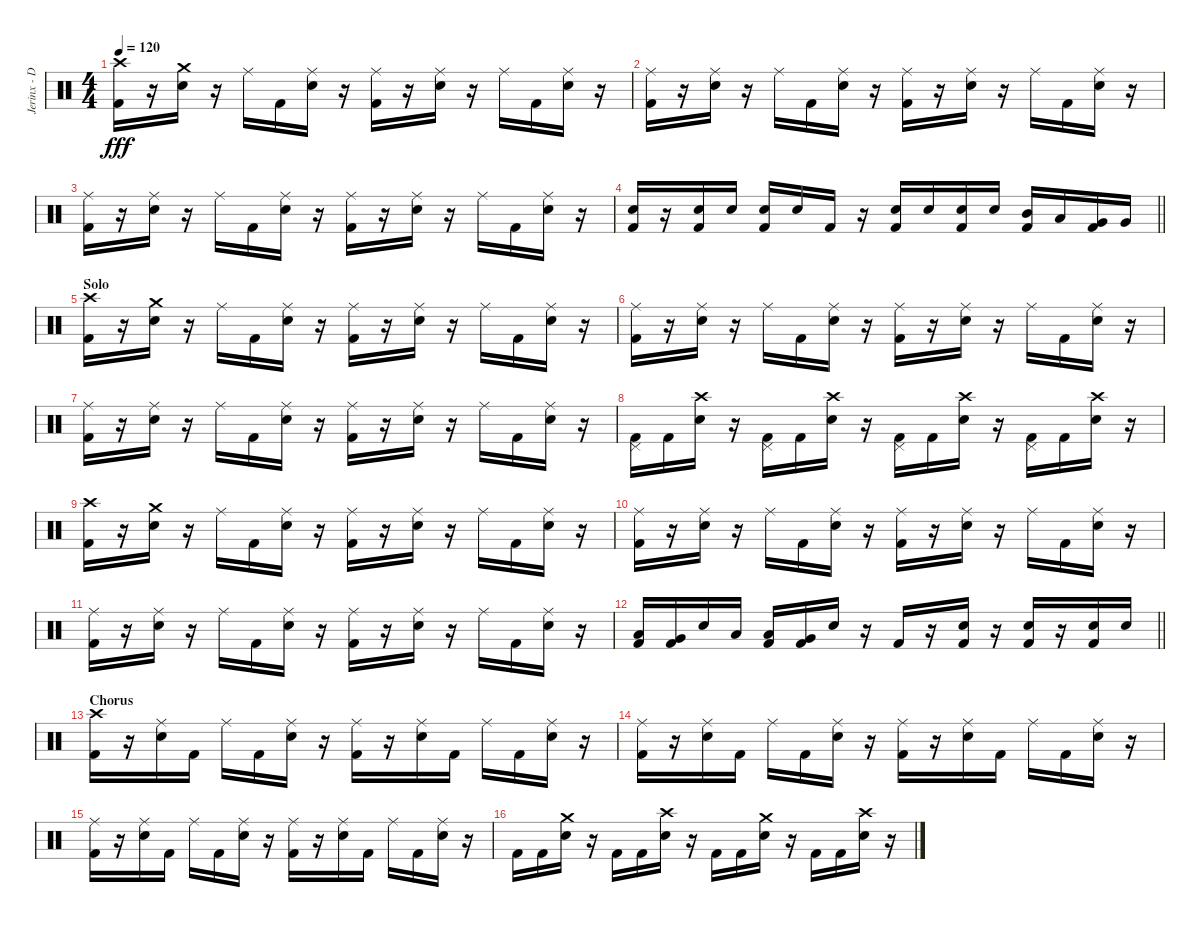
\track ("Jerinx - Drum" "Jerinx - D") {instrument percussion}
\staff {score}
\articulation defaults
\ts (4 4)
\tempo 120
\clef neutral
\ks c
("Kick (hit) 2" "Crash high (hit)").16{dy fff} r.16 ("Snare (hit) 2" "Crash medium (hit)").16 r.16 "Ride (middle)".16 "Kick (hit) 2".16 ("Snare (hit) 2" "Ride (middle)").16 r.16 ("Kick (hit) 2" "Ride (middle)").16 r.16 ("Snare (hit) 2" "Ride (middle)").16 r.16 "Ride (middle)".16 "Kick (hit) 2".16 ("Snare (hit) 2" "Ride (middle)").16 r.16 |
("Kick (hit) 2" "Ride (middle)").16 r.16 ("Snare (hit) 2" "Ride (middle)").16 r.16 "Ride (middle)".16 "Kick (hit) 2".16 ("Snare (hit) 2" "Ride (middle)").16 r.16 ("Kick (hit) 2" "Ride (middle)").16 r.16 ("Snare (hit) 2" "Ride (middle)").16 r.16 "Ride (middle)".16 "Kick (hit) 2".16 ("Snare (hit) 2" "Ride (middle)").16 r.16 |
("Kick (hit) 2" "Ride (middle)").16 r.16 ("Snare (hit) 2" "Ride (middle)").16 r.16 "Ride (middle)".16 "Kick (hit) 2".16 ("Snare (hit) 2" "Ride (middle)").16 r.16 ("Kick (hit) 2" "Ride (middle)").16 r.16 ("Snare (hit) 2" "Ride (middle)").16 r.16 "Ride (middle)".16 "Kick (hit) 2".16 ("Snare (hit) 2" "Ride (middle)").16 r.16 |
\barLineRight lightlight
("Snare (hit) 2" "Kick (hit) 2").16 r.16 ("Snare (hit) 2" "Kick (hit) 2").16 "Snare (hit) 2".16 ("Snare (hit) 2" "Kick (hit) 2").16 "Snare (hit) 2".16 "Kick (hit) 2".16 r.16 ("Snare (hit) 2" "Kick (hit) 2").16 "Snare (hit) 2".16 ("Snare (hit) 2" "Kick (hit) 2").16 "Snare (hit) 2".16 ("Mid Tom (hit)" "Kick (hit) 2").16 "Low Tom (hit)".16 ("Very Low Tom (hit)" "Kick (hit) 2").16 "Very Low Tom (hit)".16 |
\section ("" "Solo")
("Kick (hit) 2" "Crash high (hit)").16 r.16 ("Snare (hit) 2" "Crash medium (hit)").16 r.16 "Ride (middle)".16 "Kick (hit) 2".16 ("Snare (hit) 2" "Ride (middle)").16 r.16 ("Kick (hit) 2" "Ride (middle)").16 r.16 ("Snare (hit) 2" "Ride (middle)").16 r.16 "Ride (middle)".16 "Kick (hit) 2".16 ("Snare (hit) 2" "Ride (middle)").16 r.16 |
("Kick (hit) 2" "Ride (middle)").16 r.16 ("Snare (hit) 2" "Ride (middle)").16 r.16 "Ride (middle)".16 "Kick (hit) 2".16 ("Snare (hit) 2" "Ride (middle)").16 r.16 ("Kick (hit) 2" "Ride (middle)").16 r.16 ("Snare (hit) 2" "Ride (middle)").16 r.16 "Ride (middle)".16 "Kick (hit) 2".16 ("Snare (hit) 2" "Ride (middle)").16 r.16 |
("Kick (hit) 2" "Ride (middle)").16 r.16 ("Snare (hit) 2" "Ride (middle)").16 r.16 "Ride (middle)".16 "Kick (hit) 2".16 ("Snare (hit) 2" "Ride (middle)").16 r.16 ("Kick (hit) 2" "Ride (middle)").16 r.16 ("Snare (hit) 2" "Ride (middle)").16 r.16 "Ride (middle)".16 "Kick (hit) 2".16 ("Snare (hit) 2" "Ride (middle)").16 r.16 |
("Pedal Hi-Hat (hit)" "Kick (hit) 2").16 "Kick (hit) 2".16 ("Snare (hit) 2" "Crash high (hit)").16 r.16 ("Pedal Hi-Hat (hit)" "Kick (hit) 2").16 "Kick (hit) 2".16 ("Snare (hit) 2" "Crash high (hit)").16 r.16 ("Pedal Hi-Hat (hit)" "Kick (hit) 2").16 "Kick (hit) 2".16 ("Snare (hit) 2" "Crash high (hit)").16 r.16 ("Pedal Hi-Hat (hit)" "Kick (hit) 2").16 "Kick (hit) 2".16 ("Snare (hit) 2" "Crash high (hit)").16 r.16 |
("Kick (hit) 2" "Crash high (hit)").16 r.16 ("Snare (hit) 2" "Crash medium (hit)").16 r.16 "Ride (middle)".16 "Kick (hit) 2".16 ("Snare (hit) 2" "Ride (middle)").16 r.16 ("Kick (hit) 2" "Ride (middle)").16 r.16 ("Snare (hit) 2" "Ride (middle)").16 r.16 "Ride (middle)".16 "Kick (hit) 2".16 ("Snare (hit) 2" "Ride (middle)").16 r.16 |
("Kick (hit) 2" "Ride (middle)").16 r.16 ("Snare (hit) 2" "Ride (middle)").16 r.16 "Ride (middle)".16 "Kick (hit) 2".16 ("Snare (hit) 2" "Ride (middle)").16 r.16 ("Kick (hit) 2" "Ride (middle)").16 r.16 ("Snare (hit) 2" "Ride (middle)").16 r.16 "Ride (middle)".16 "Kick (hit) 2".16 ("Snare (hit) 2" "Ride (middle)").16 r.16 |
("Kick (hit) 2" "Ride (middle)").16 r.16 ("Snare (hit) 2" "Ride (middle)").16 r.16 "Ride (middle)".16 "Kick (hit) 2".16 ("Snare (hit) 2" "Ride (middle)").16 r.16 ("Kick (hit) 2" "Ride (middle)").16 r.16 ("Snare (hit) 2" "Ride (middle)").16 r.16 "Ride (middle)".16 "Kick (hit) 2".16 ("Snare (hit) 2" "Ride (middle)").16 r.16 |
\barLineRight lightlight
("Kick (hit) 2" "Low Tom (hit)").16 ("Kick (hit) 2" "Very Low Tom (hit)").16 "Snare (hit) 2".16 "Low Tom (hit)".16 ("Kick (hit) 2" "Low Tom (hit)").16 ("Kick (hit) 2" "Very Low Tom (hit)").16 "Snare (hit) 2".16 r.16 "Kick (hit) 2".16 r.16 ("Snare (hit) 2" "Kick (hit) 2").16 r.16 ("Snare (hit) 2" "Kick (hit) 2").16 r.16 ("Snare (hit) 2" "Kick (hit) 2").16 "Snare (hit) 2".16 |
\section ("" "Chorus")
("Kick (hit) 2" "Crash high (hit)").16 r.16 ("Snare (hit) 2" "Ride (middle)").16 "Kick (hit) 2".16 "Ride (middle)".16 "Kick (hit) 2".16 ("Snare (hit) 2" "Ride (middle)").16 r.16 ("Kick (hit) 2" "Ride (middle)").16 r.16 ("Snare (hit) 2" "Ride (middle)").16 "Kick (hit) 2".16 "Ride (middle)".16 "Kick (hit) 2".16 ("Snare (hit) 2" "Ride (middle)").16 r.16 |
("Kick (hit) 2" "Ride (middle)").16 r.16 ("Snare (hit) 2" "Ride (middle)").16 "Kick (hit) 2".16 "Ride (middle)".16 "Kick (hit) 2".16 ("Snare (hit) 2" "Ride (middle)").16 r.16 ("Kick (hit) 2" "Ride (middle)").16 r.16 ("Snare (hit) 2" "Ride (middle)").16 "Kick (hit) 2".16 "Ride (middle)".16 "Kick (hit) 2".16 ("Snare (hit) 2" "Ride (middle)").16 r.16 |
("Kick (hit) 2" "Ride (middle)").16 r.16 ("Snare (hit) 2" "Ride (middle)").16 "Kick (hit) 2".16 "Ride (middle)".16 "Kick (hit) 2".16 ("Snare (hit) 2" "Ride (middle)").16 r.16 ("Kick (hit) 2" "Ride (middle)").16 r.16 ("Snare (hit) 2" "Ride (middle)").16 "Kick (hit) 2".16 "Ride (middle)".16 "Kick (hit) 2".16 ("Snare (hit) 2" "Ride (middle)").16 r.16 |
"Kick (hit) 2".16 "Kick (hit) 2".16 ("Snare (hit) 2" "Crash medium (hit)").16 r.16 "Kick (hit) 2".16 "Kick (hit) 2".16 ("Snare (hit) 2" "Crash high (hit)").16 r.16 "Kick (hit) 2".16 "Kick (hit) 2".16 ("Snare (hit) 2" "Crash medium (hit)").16 r.16 "Kick (hit) 2".16 "Kick (hit) 2".16 ("Snare (hit) 2" "Crash high (hit)").16 r.16
